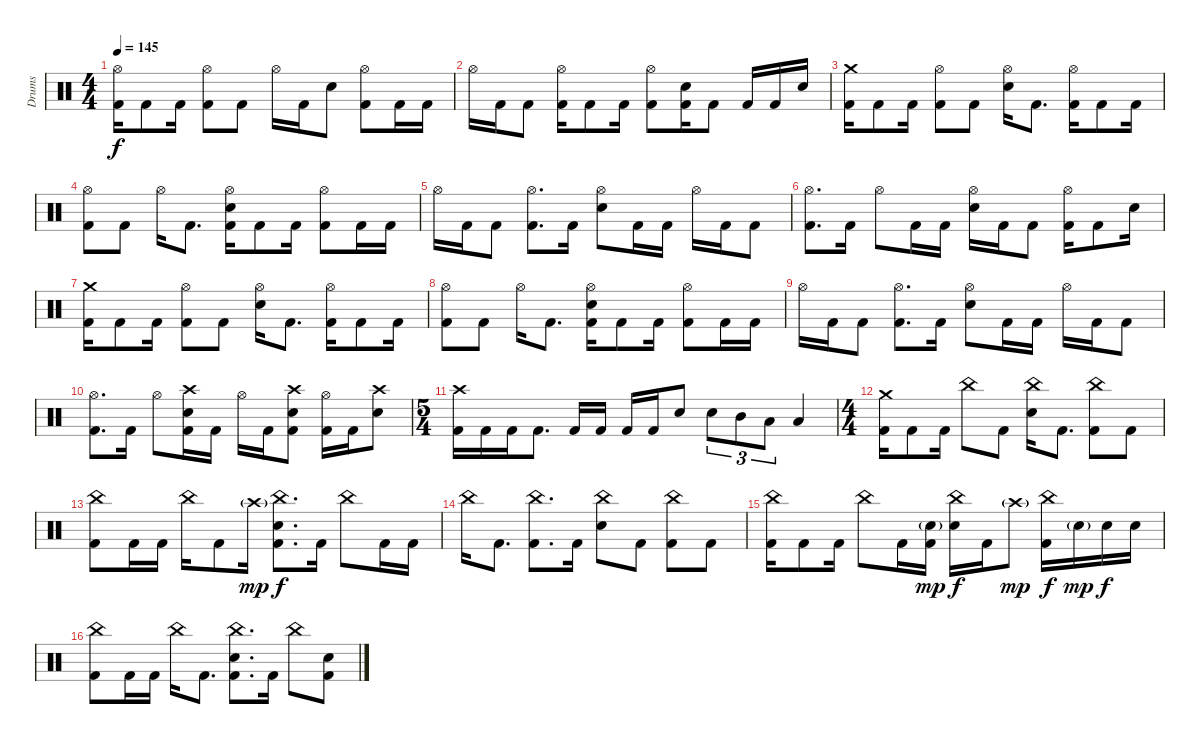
\track ("Drums" "Drums") {instrument percussion}
\staff {score}
\articulation defaults
\ts (4 4)
\tempo 145
\clef neutral
\ks c
("Hi-Hat (open)" "Kick (hit) 2").16{dy f} "Kick (hit) 2".8 "Kick (hit) 2".16 ("Hi-Hat (open)" "Kick (hit) 2").8 "Kick (hit) 2".8 "Hi-Hat (open)".16 "Kick (hit) 2".16 "Snare (hit) 2".8 ("Hi-Hat (open)" "Kick (hit) 2").8 "Kick (hit) 2".16 "Kick (hit) 2".16 |
"Hi-Hat (open)".16 "Kick (hit) 2".16 "Kick (hit) 2".8 ("Hi-Hat (open)" "Kick (hit) 2").16 "Kick (hit) 2".8 "Kick (hit) 2".16 ("Hi-Hat (open)" "Kick (hit) 2").8 ("Snare (hit) 2" "Kick (hit) 2").16 "Kick (hit) 2".8 "Kick (hit) 2".16 "Kick (hit) 2".16 "Snare (hit) 2".16 |
("Crash medium (hit)" "Kick (hit) 2").16 "Kick (hit) 2".8 "Kick (hit) 2".16 ("Hi-Hat (open)" "Kick (hit) 2").8 "Kick (hit) 2".8 ("Hi-Hat (open)" "Snare (hit) 2").16 "Kick (hit) 2".8{d} ("Hi-Hat (open)" "Kick (hit) 2").16 "Kick (hit) 2".8 "Kick (hit) 2".16 |
("Hi-Hat (open)" "Kick (hit) 2").8 "Kick (hit) 2".8 "Hi-Hat (open)".16 "Kick (hit) 2".8{d} ("Hi-Hat (open)" "Snare (hit) 2" "Kick (hit) 2").16 "Kick (hit) 2".8 "Kick (hit) 2".16 ("Hi-Hat (open)" "Kick (hit) 2").8 "Kick (hit) 2".16 "Kick (hit) 2".16 |
"Hi-Hat (open)".16 "Kick (hit) 2".16 "Kick (hit) 2".8 ("Hi-Hat (open)" "Kick (hit) 2").8{d} "Kick (hit) 2".16 ("Hi-Hat (open)" "Snare (hit) 2").8 "Kick (hit) 2".16 "Kick (hit) 2".16 "Hi-Hat (open)".16 "Kick (hit) 2".16 "Kick (hit) 2".8 |
("Hi-Hat (open)" "Kick (hit) 2").8{d} "Kick (hit) 2".16 "Hi-Hat (open)".8 "Kick (hit) 2".16 "Kick (hit) 2".16 ("Hi-Hat (open)" "Snare (hit) 2").16 "Kick (hit) 2".16 "Kick (hit) 2".8 ("Hi-Hat (open)" "Kick (hit) 2").16 "Kick (hit) 2".8 "Snare (hit) 2".16 |
("Crash medium (hit)" "Kick (hit) 2").16 "Kick (hit) 2".8 "Kick (hit) 2".16 ("Hi-Hat (open)" "Kick (hit) 2").8 "Kick (hit) 2".8 ("Hi-Hat (open)" "Snare (hit) 2").16 "Kick (hit) 2".8{d} ("Hi-Hat (open)" "Kick (hit) 2").16 "Kick (hit) 2".8 "Kick (hit) 2".16 |
("Hi-Hat (open)" "Kick (hit) 2").8 "Kick (hit) 2".8 "Hi-Hat (open)".16 "Kick (hit) 2".8{d} ("Hi-Hat (open)" "Snare (hit) 2" "Kick (hit) 2").16 "Kick (hit) 2".8 "Kick (hit) 2".16 ("Hi-Hat (open)" "Kick (hit) 2").8 "Kick (hit) 2".16 "Kick (hit) 2".16 |
"Hi-Hat (open)".16 "Kick (hit) 2".16 "Kick (hit) 2".8 ("Hi-Hat (open)" "Kick (hit) 2").8{d} "Kick (hit) 2".16 ("Hi-Hat (open)" "Snare (hit) 2").8 "Kick (hit) 2".16 "Kick (hit) 2".16 "Hi-Hat (open)".16 "Kick (hit) 2".16 "Kick (hit) 2".8 |
("Hi-Hat (open)" "Kick (hit) 2").8{d} "Kick (hit) 2".16 "Hi-Hat (open)".8 ("Crash high (hit)" "Snare (hit) 2" "Kick (hit) 2").16 "Kick (hit) 2".16 "Hi-Hat (open)".16 "Kick (hit) 2".16 ("Crash high (hit)" "Snare (hit) 2" "Kick (hit) 2").8 ("Hi-Hat (open)" "Kick (hit) 2").16 "Kick (hit) 2".16 ("Crash high (hit)" "Snare (hit) 2").8 |
\ts (5 4)
("Crash high (hit)" "Kick (hit) 2").16 "Kick (hit) 2".16 "Kick (hit) 2".16 "Kick (hit) 2".8{d} "Kick (hit) 2".16 "Kick (hit) 2".16 "Kick (hit) 2".16 "Kick (hit) 2".16 "Snare (hit) 2".8 "Snare (hit) 2".8{tu (3 2)} "Mid Tom (hit)".8{tu (3 2)} "Low Tom (hit)".8{tu (3 2)} "Low Floor Tom (hit)".4 |
\ts (4 4)
("Crash medium (hit)" "Kick (hit) 2").16 "Kick (hit) 2".8 "Kick (hit) 2".16 "China (hit)".8 "Kick (hit) 2".8 ("China (hit)" "Snare (hit) 2").16 "Kick (hit) 2".8{d} ("China (hit)" "Kick (hit) 2").8 "Kick (hit) 2".8 |
("China (hit)" "Kick (hit) 2").8 "Kick (hit) 2".16 "Kick (hit) 2".16 "China (hit)".16 "Kick (hit) 2".8 "Crash high (hit)"{g}.16{dy mp} ("China (hit)" "Snare (hit) 2" "Kick (hit) 2").8{d dy f} "Kick (hit) 2".16 "China (hit)".8 "Kick (hit) 2".16 "Kick (hit) 2".16 |
"China (hit)".16 "Kick (hit) 2".8{d} ("China (hit)" "Kick (hit) 2").8{d} "Kick (hit) 2".16 ("China (hit)" "Snare (hit) 2").8 "Kick (hit) 2".8 ("China (hit)" "Kick (hit) 2").8 "Kick (hit) 2".8 |
("China (hit)" "Kick (hit) 2").16 "Kick (hit) 2".8 "Kick (hit) 2".16 "China (hit)".8 "Kick (hit) 2".16 ("Snare (hit) 2"{g} "Kick (hit) 2").16{dy mp} ("China (hit)" "Snare (hit) 2").16{dy f} "Kick (hit) 2".16 "Crash high (hit)"{g}.8{dy mp} ("China (hit)" "Kick (hit) 2").16{dy f} "Snare (hit) 2"{g}.16{dy mp} "Snare (hit) 2".16{dy f} "Snare (hit) 2".16 |
("China (hit)" "Kick (hit) 2").8 "Kick (hit) 2".16 "Kick (hit) 2".16 "China (hit)".16 "Kick (hit) 2".8{d} ("China (hit)" "Snare (hit) 2" "Kick (hit) 2").8{d} "Kick (hit) 2".16 "China (hit)".8 ("Snare (hit) 2" "Kick (hit) 2").8
